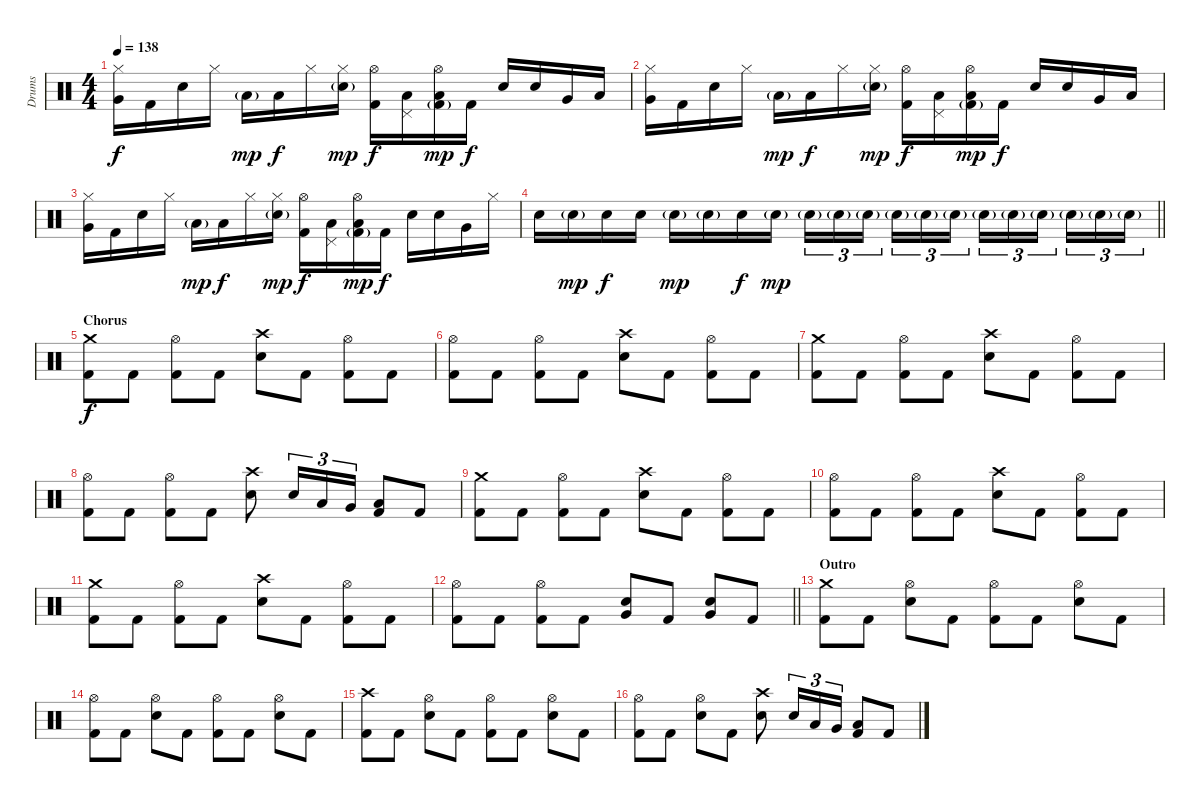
\track ("Drums" "Drums") {instrument percussion}
\staff {score}
\articulation defaults
\ts (4 4)
\tempo 138
\clef neutral
\ks c
("Hi-Hat (closed)" "Very Low Tom (hit)").16{dy f} "Kick (hit) 2".16 "Electric Snare (hit)".16 "Hi-Hat (closed)".16 "Low Floor Tom (hit)"{g}.16{dy mp} "Low Tom (hit)".16{dy f} "Hi-Hat (closed)".16 ("Hi-Hat (closed)" "Electric Snare (hit)"{g}).16{dy mp} ("Hi-Hat (open)" "Kick (hit) 2").16{dy f} ("Pedal Hi-Hat (hit)" "Low Floor Tom (hit)").16 ("Hi-Hat (open)" "Low Floor Tom (hit)" "Kick (hit) 2"{g}).16{dy mp} "Kick (hit) 2".16{dy f} "Electric Snare (hit)".16 "Electric Snare (hit)".16 "Very Low Tom (hit)".16 "Low Floor Tom (hit)".16 |
("Hi-Hat (closed)" "Very Low Tom (hit)").16 "Kick (hit) 2".16 "Electric Snare (hit)".16 "Hi-Hat (closed)".16 "Low Floor Tom (hit)"{g}.16{dy mp} "Low Tom (hit)".16{dy f} "Hi-Hat (closed)".16 ("Hi-Hat (closed)" "Electric Snare (hit)"{g}).16{dy mp} ("Hi-Hat (open)" "Kick (hit) 2").16{dy f} ("Pedal Hi-Hat (hit)" "Low Floor Tom (hit)").16 ("Hi-Hat (open)" "Low Floor Tom (hit)" "Kick (hit) 2"{g}).16{dy mp} "Kick (hit) 2".16{dy f} "Electric Snare (hit)".16 "Electric Snare (hit)".16 "Very Low Tom (hit)".16 "Low Floor Tom (hit)".16 |
("Hi-Hat (closed)" "Very Low Tom (hit)").16 "Kick (hit) 2".16 "Electric Snare (hit)".16 "Hi-Hat (closed)".16 "Low Floor Tom (hit)"{g}.16{dy mp} "Low Tom (hit)".16{dy f} "Hi-Hat (closed)".16 ("Hi-Hat (closed)" "Electric Snare (hit)"{g}).16{dy mp} ("Hi-Hat (open)" "Kick (hit) 2").16{dy f} ("Pedal Hi-Hat (hit)" "Low Floor Tom (hit)").16 ("Hi-Hat (open)" "Low Floor Tom (hit)" "Kick (hit) 2"{g}).16{dy mp} "Kick (hit) 2".16{dy f} "Electric Snare (hit)".16 "Electric Snare (hit)".16 "Very Low Tom (hit)".16 "Hi-Hat (closed)".16 |
\barLineRight lightlight "Electric Snare (hit)".16 "Electric Snare (hit)"{g}.16{dy mp} "Electric Snare (hit)".16{dy f} "Electric Snare (hit)".16 "Electric Snare (hit)"{g}.16{dy mp} "Electric Snare (hit)"{g}.16 "Electric Snare (hit)".16{dy f} "Electric Snare (hit)"{g}.16{dy mp} "Electric Snare (hit)"{g}.16{tu (3 2) volume 16} "Electric Snare (hit)"{g}.16{tu (3 2)} "Electric Snare (hit)"{g}.16{tu (3 2) beam splitsecondary} "Electric Snare (hit)"{g}.16{tu (3 2)} "Electric Snare (hit)"{g}.16{tu (3 2)} "Electric Snare (hit)"{g}.16{tu (3 2)} "Electric Snare (hit)"{g}.16{tu (3 2)} "Electric Snare (hit)"{g}.16{tu (3 2)} "Electric Snare (hit)"{g}.16{tu (3 2) beam splitsecondary} "Electric Snare (hit)"{g}.16{tu (3 2)} "Electric Snare (hit)"{g}.16{tu (3 2)} "Electric Snare (hit)"{g}.16{tu (3 2)}
|
\section ("" "Chorus")
("Crash medium (hit)" "Kick (hit) 2").8{dy f volume 12} "Kick (hit) 2".8 ("Hi-Hat (open)" "Kick (hit) 2").8 "Kick (hit) 2".8 ("Crash high (hit)" "Electric Snare (hit)").8 "Kick (hit) 2".8 ("Hi-Hat (open)" "Kick (hit) 2").8 "Kick (hit) 2".8 |
("Hi-Hat (open)" "Kick (hit) 2").8 "Kick (hit) 2".8 ("Hi-Hat (open)" "Kick (hit) 2").8 "Kick (hit) 2".8 ("Crash high (hit)" "Electric Snare (hit)").8 "Kick (hit) 2".8 ("Hi-Hat (open)" "Kick (hit) 2").8 "Kick (hit) 2".8 |
("Crash medium (hit)" "Kick (hit) 2").8 "Kick (hit) 2".8 ("Hi-Hat (open)" "Kick (hit) 2").8 "Kick (hit) 2".8 ("Crash high (hit)" "Electric Snare (hit)").8 "Kick (hit) 2".8 ("Hi-Hat (open)" "Kick (hit) 2").8 "Kick (hit) 2".8 |
("Hi-Hat (open)" "Kick (hit) 2").8 "Kick (hit) 2".8 ("Hi-Hat (open)" "Kick (hit) 2").8 "Kick (hit) 2".8 ("Crash high (hit)" "Electric Snare (hit)").8 "Electric Snare (hit)".16{tu (3 2)} "Low Tom (hit)".16{tu (3 2)} "Very Low Tom (hit)".16{tu (3 2)} ("Low Floor Tom (hit)" "Kick (hit) 2").8 "Kick (hit) 2".8 |
("Crash medium (hit)" "Kick (hit) 2").8 "Kick (hit) 2".8 ("Hi-Hat (open)" "Kick (hit) 2").8 "Kick (hit) 2".8 ("Crash high (hit)" "Electric Snare (hit)").8 "Kick (hit) 2".8 ("Hi-Hat (open)" "Kick (hit) 2").8 "Kick (hit) 2".8 |
("Hi-Hat (open)" "Kick (hit) 2").8 "Kick (hit) 2".8 ("Hi-Hat (open)" "Kick (hit) 2").8 "Kick (hit) 2".8 ("Crash high (hit)" "Electric Snare (hit)").8 "Kick (hit) 2".8 ("Hi-Hat (open)" "Kick (hit) 2").8 "Kick (hit) 2".8 |
("Crash medium (hit)" "Kick (hit) 2").8 "Kick (hit) 2".8 ("Hi-Hat (open)" "Kick (hit) 2").8 "Kick (hit) 2".8 ("Crash high (hit)" "Electric Snare (hit)").8 "Kick (hit) 2".8 ("Hi-Hat (open)" "Kick (hit) 2").8 "Kick (hit) 2".8 |
\barLineRight lightlight
("Hi-Hat (open)" "Kick (hit) 2").8 "Kick (hit) 2".8 ("Hi-Hat (open)" "Kick (hit) 2").8 "Kick (hit) 2".8 ("Very Low Tom (hit)" "Electric Snare (hit)").8 "Kick (hit) 2".8 ("Very Low Tom (hit)" "Electric Snare (hit)").8 "Kick (hit) 2".8 |
\section ("" "Outro")
("Crash medium (hit)" "Kick (hit) 2").8 "Kick (hit) 2".8 ("Hi-Hat (open)" "Electric Snare (hit)").8 "Kick (hit) 2".8 ("Hi-Hat (open)" "Kick (hit) 2").8 "Kick (hit) 2".8 ("Hi-Hat (open)" "Electric Snare (hit)").8 "Kick (hit) 2".8 |
("Hi-Hat (open)" "Kick (hit) 2").8 "Kick (hit) 2".8 ("Hi-Hat (open)" "Electric Snare (hit)").8 "Kick (hit) 2".8 ("Hi-Hat (open)" "Kick (hit) 2").8 "Kick (hit) 2".8 ("Hi-Hat (open)" "Electric Snare (hit)").8 "Kick (hit) 2".8 |
("Crash high (hit)" "Kick (hit) 2").8 "Kick (hit) 2".8 ("Hi-Hat (open)" "Electric Snare (hit)").8 "Kick (hit) 2".8 ("Hi-Hat (open)" "Kick (hit) 2").8 "Kick (hit) 2".8 ("Hi-Hat (open)" "Electric Snare (hit)").8 "Kick (hit) 2".8 |
("Hi-Hat (open)" "Kick (hit) 2").8 "Kick (hit) 2".8 ("Hi-Hat (open)" "Electric Snare (hit)").8 "Kick (hit) 2".8 ("Crash high (hit)" "Electric Snare (hit)").8 "Electric Snare (hit)".16{tu (3 2)} "Low Tom (hit)".16{tu (3 2)} "Very Low Tom (hit)".16{tu (3 2)} ("Low Floor Tom (hit)" "Kick (hit) 2").8 "Kick (hit) 2".8
